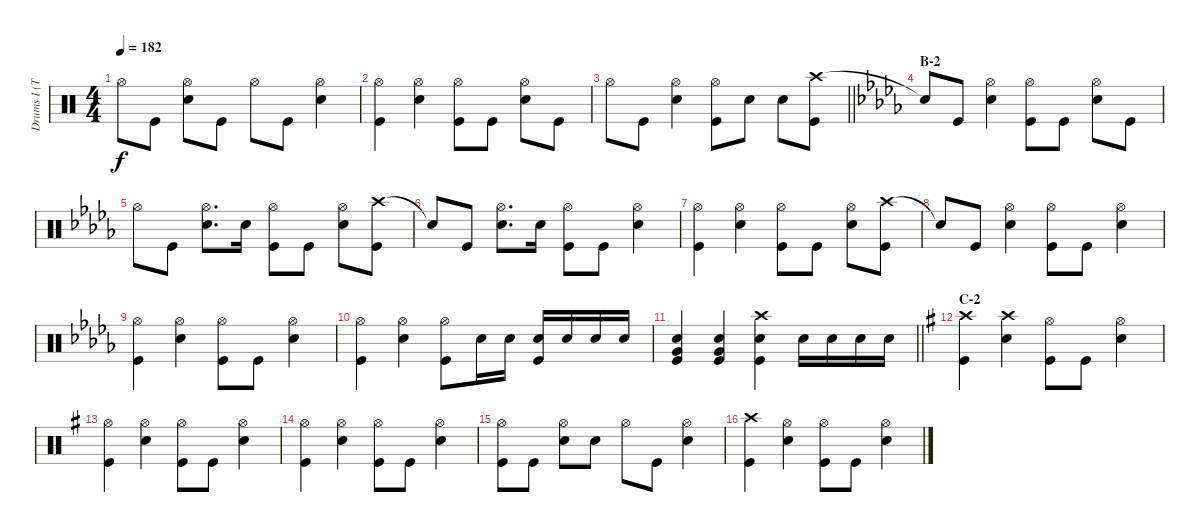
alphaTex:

\track ("Drums I (Tainaka Ritsu)" "Drums I (T") {instrument percussion}
\staff {score}
\articulation defaults
\ts (4 4)
\tempo 182
\clef neutral
\ks c "Hi-Hat (open)".8{dy f} "Kick (hit)".8
("Hi-Hat (open)" "Snare (hit) 2").8 "Kick (hit)".8 "Hi-Hat (open)".8 "Kick (hit)".8 ("Hi-Hat (open)" "Snare (hit) 2").4 |
("Hi-Hat (open)" "Kick (hit)").4 ("Hi-Hat (open)" "Snare (hit) 2").4 ("Hi-Hat (open)" "Kick (hit)").8 "Kick (hit)".8 ("Hi-Hat (open)" "Snare (hit) 2").8 "Kick (hit)".8 |
\barLineRight lightlight "Hi-Hat (open)".8 "Kick (hit)".8
("Hi-Hat (open)" "Snare (hit) 2").4 ("Hi-Hat (open)" "Kick (hit)").8 "Snare (hit) 2".8 "Snare (hit) 2".8 ("Crash high (hit)" "Kick (hit)").8 |
\section ("" "B-2")
\ks db "Snare (hit)"{t}.8 "Kick (hit)".8
("Hi-Hat (open)" "Snare (hit) 2").4 ("Hi-Hat (open)" "Kick (hit)").8 "Kick (hit)".8 ("Hi-Hat (open)" "Snare (hit) 2").8 "Kick (hit)".8 |
"Hi-Hat (open)".8 "Kick (hit)".8 ("Hi-Hat (open)" "Snare (hit) 2").8{d} "Snare (hit) 2".16 ("Hi-Hat (open)" "Kick (hit)").8 "Kick (hit)".8 ("Hi-Hat (open)" "Snare (hit) 2").8 ("Crash high (hit)" "Kick (hit)").8 |
"Snare (hit)"{t}.8 "Kick (hit)".8 ("Hi-Hat (open)" "Snare (hit) 2").8{d} "Snare (hit) 2".16 ("Hi-Hat (open)" "Kick (hit)").8 "Kick (hit)".8 ("Hi-Hat (open)" "Snare (hit) 2").4 |
("Hi-Hat (open)" "Kick (hit)").4 ("Hi-Hat (open)" "Snare (hit) 2").4 ("Hi-Hat (open)" "Kick (hit)").8 "Kick (hit)".8 ("Hi-Hat (open)" "Snare (hit) 2").8 ("Crash high (hit)" "Kick (hit)").8 |
"Snare (hit)"{t}.8 "Kick (hit)".8 ("Hi-Hat (open)" "Snare (hit) 2").4 ("Hi-Hat (open)" "Kick (hit)").8 "Kick (hit)".8 ("Hi-Hat (open)" "Snare (hit) 2").4 |
("Hi-Hat (open)" "Kick (hit)").4 ("Hi-Hat (open)" "Snare (hit) 2").4 ("Hi-Hat (open)" "Kick (hit)").8 "Kick (hit)".8 ("Hi-Hat (open)" "Snare (hit) 2").4 |
("Hi-Hat (open)" "Kick (hit)").4 ("Hi-Hat (open)" "Snare (hit) 2").4 ("Hi-Hat (open)" "Kick (hit)").8 "Snare (hit) 2".16 "Snare (hit) 2".16 ("Snare (hit) 2" "Kick (hit)").16 "Snare (hit) 2".16 "Snare (hit) 2".16 "Snare (hit) 2".16 |
\barLineRight lightlight
("Snare (hit) 2" "Very Low Tom (hit)" "Kick (hit)").4 ("Snare (hit) 2" "Very Low Tom (hit)" "Kick (hit)").4 ("Crash high (hit)" "Snare (hit) 2" "Kick (hit)").4 "Snare (hit) 2".16 "Snare (hit) 2".16 "Snare (hit) 2".16 "Snare (hit) 2".16 |
\section ("" "C-2")
\ks g
("Crash high (hit)" "Kick (hit)").4 ("Crash high (hit)" "Snare (hit) 2").4 ("Hi-Hat (open)" "Kick (hit)").8 "Kick (hit)".8 ("Hi-Hat (open)" "Snare (hit) 2").4 |
("Hi-Hat (open)" "Kick (hit)").4 ("Hi-Hat (open)" "Snare (hit) 2").4 ("Hi-Hat (open)" "Kick (hit)").8 "Kick (hit)".8 ("Hi-Hat (open)" "Snare (hit) 2").4 |
("Hi-Hat (open)" "Kick (hit)").4 ("Hi-Hat (open)" "Snare (hit) 2").4 ("Hi-Hat (open)" "Kick (hit)").8 "Kick (hit)".8 ("Hi-Hat (open)" "Snare (hit) 2").4 |
("Hi-Hat (open)" "Kick (hit)").8 "Kick (hit)".8 ("Hi-Hat (open)" "Snare (hit) 2").8 "Snare (hit) 2".8 "Hi-Hat (open)".8 "Kick (hit)".8 ("Hi-Hat (open)" "Snare (hit) 2").4 |
("Crash high (hit)" "Kick (hit)").4 ("Hi-Hat (open)" "Snare (hit) 2").4 ("Hi-Hat (open)" "Kick (hit)").8 "Kick (hit)".8 ("Hi-Hat (open)" "Snare (hit) 2").4
